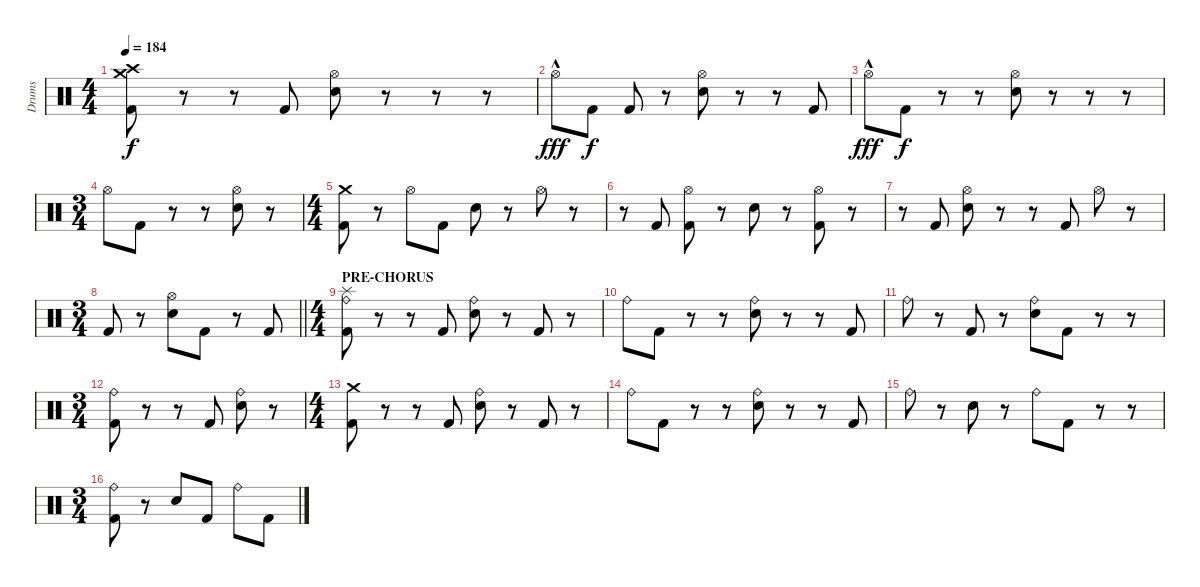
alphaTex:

\track ("Drums" "Drums") {instrument percussion}
\staff {score}
\articulation defaults
\ts (4 4)
\tempo 184
\clef neutral
\ks c
("Crash medium (hit)" "Crash high (hit)" "Kick (hit) 2").8{dy f} r.8 r.8 "Kick (hit) 2".8 ("Hi-Hat (open)" "Snare (hit) 2").8 r.8 r.8 r.8 |
"Hi-Hat (open)"{hac}.8{dy fff} "Kick (hit) 2".8{dy f} "Kick (hit) 2".8 r.8 ("Hi-Hat (open)" "Snare (hit) 2").8 r.8 r.8 "Kick (hit) 2".8 |
"Hi-Hat (open)"{hac}.8{dy fff} "Kick (hit) 2".8{dy f} r.8 r.8 ("Hi-Hat (open)" "Snare (hit) 2").8 r.8 r.8 r.8 |
\ts (3 4)
"Hi-Hat (open)".8 "Kick (hit) 2".8 r.8 r.8 ("Hi-Hat (open)" "Snare (hit) 2").8 r.8 |
\ts (4 4)
("Crash medium (hit)" "Kick (hit) 2").8 r.8 "Hi-Hat (open)".8 "Kick (hit) 2".8 "Snare (hit) 2".8 r.8 "Hi-Hat (open)".8 r.8 |
r.8 "Kick (hit) 2".8 ("Hi-Hat (open)" "Kick (hit) 2").8 r.8 "Snare (hit) 2".8 r.8 ("Hi-Hat (open)" "Kick (hit) 2").8 r.8 |
r.8 "Kick (hit) 2".8 ("Hi-Hat (open)" "Snare (hit) 2").8 r.8 r.8 "Kick (hit) 2".8 "Hi-Hat (open)".8 r.8 |
\ts (3 4)
\barLineRight lightlight "Kick (hit) 2".8
r.8 ("Hi-Hat (open)" "Snare (hit) 2").8 "Kick (hit) 2".8 r.8 "Kick (hit) 2".8 |
\ts (4 4)
\section ("" "PRE-CHORUS")
("Splash (hit)" "Ride (bell)" "Kick (hit) 2").8 r.8 r.8 "Kick (hit) 2".8 ("Ride (bell)" "Snare (hit) 2").8 r.8 "Kick (hit) 2".8 r.8 |
"Ride (bell)".8 "Kick (hit) 2".8 r.8 r.8 ("Ride (bell)" "Snare (hit) 2").8 r.8 r.8 "Kick (hit) 2".8 |
"Ride (bell)".8 r.8 "Kick (hit) 2".8 r.8 ("Ride (bell)" "Snare (hit) 2").8 "Kick (hit) 2".8 r.8 r.8 |
\ts (3 4)
("Ride (bell)" "Kick (hit) 2").8 r.8 r.8 "Kick (hit) 2".8 ("Ride (bell)" "Snare (hit) 2").8 r.8 |
\ts (4 4)
("Crash medium (hit)" "Kick (hit) 2").8 r.8 r.8 "Kick (hit) 2".8 ("Ride (bell)" "Snare (hit) 2").8 r.8 "Kick (hit) 2".8 r.8 |
"Ride (bell)".8 "Kick (hit) 2".8 r.8 r.8 ("Ride (bell)" "Snare (hit) 2").8 r.8 r.8 "Kick (hit) 2".8 |
"Ride (bell)".8 r.8 "Snare (hit) 2".8 r.8 "Ride (bell)".8 "Kick (hit) 2".8 r.8 r.8 |
\ts (3 4)
("Ride (bell)" "Kick (hit) 2").8 r.8 "Snare (hit) 2".8 "Kick (hit) 2".8 "Ride (bell)".8 "Kick (hit) 2".8
